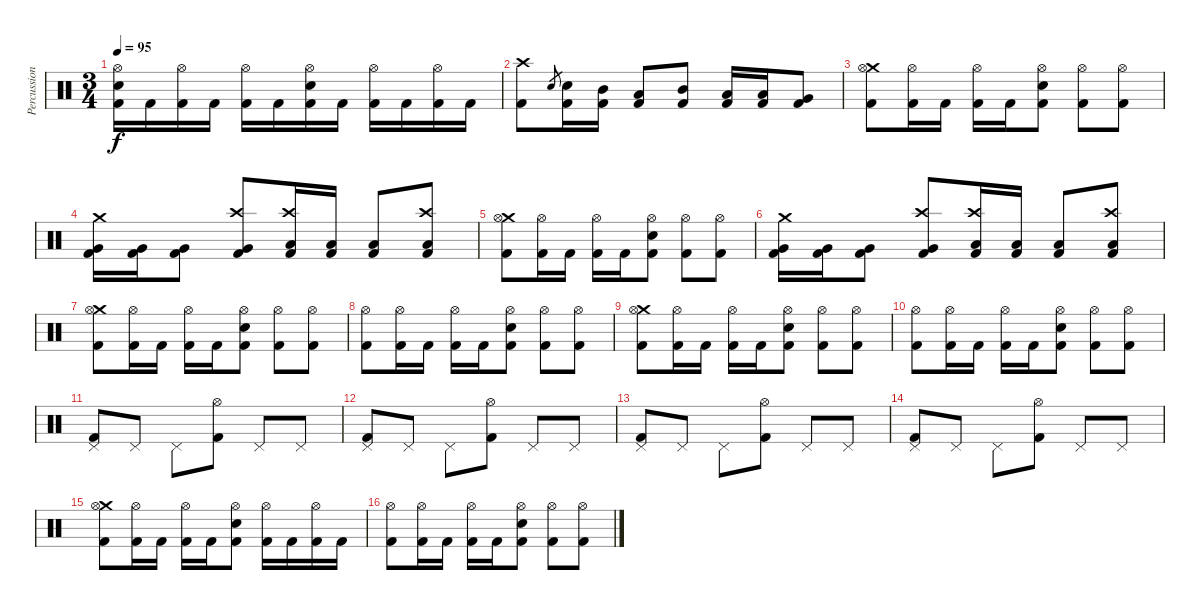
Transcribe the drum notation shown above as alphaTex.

\track ("Percussion" "Percussion") {instrument percussion}
\staff {score}
\articulation defaults
\ts (3 4)
\tempo 95
\clef neutral
\ks c
("Hi-Hat (open)" "Electric Snare (hit)" "Kick (hit) 2").16{dy f} "Kick (hit) 2".16 ("Hi-Hat (open)" "Kick (hit) 2").16 "Kick (hit) 2".16 ("Hi-Hat (open)" "Kick (hit) 2").16 "Kick (hit) 2".16 ("Hi-Hat (open)" "Electric Snare (hit)" "Kick (hit) 2").16 "Kick (hit) 2".16 ("Hi-Hat (open)" "Kick (hit) 2").16 "Kick (hit) 2".16 ("Hi-Hat (open)" "Kick (hit) 2").16 "Kick (hit) 2".16 |
("Crash high (hit)" "Kick (hit) 2").8 "Electric Snare (hit)".8{gr} ("Electric Snare (hit)" "Kick (hit) 2").16 ("Mid Tom (hit)" "Kick (hit) 2").16 ("Low Tom (hit)" "Kick (hit) 2").8 ("Mid Tom (hit)" "Kick (hit) 2").8 ("Low Tom (hit)" "Kick (hit) 2").16 ("Low Tom (hit)" "Kick (hit) 2").16 ("Very Low Tom (hit)" "Kick (hit) 2").8 |
("Crash medium (hit)" "Hi-Hat (open)" "Kick (hit) 2").8 ("Hi-Hat (open)" "Kick (hit) 2").16 "Kick (hit) 2".16 ("Hi-Hat (open)" "Kick (hit) 2").16 "Kick (hit) 2".16 ("Hi-Hat (open)" "Electric Snare (hit)" "Kick (hit) 2").8 ("Hi-Hat (open)" "Kick (hit) 2").8 ("Hi-Hat (open)" "Kick (hit) 2").8 |
("Crash medium (hit)" "Very Low Tom (hit)" "Kick (hit) 2").16 ("Very Low Tom (hit)" "Kick (hit) 2").16 ("Very Low Tom (hit)" "Kick (hit) 2").8 ("Crash high (hit)" "Very Low Tom (hit)" "Kick (hit) 2").8 ("Crash high (hit)" "Low Floor Tom (hit)" "Kick (hit) 2").16 ("Low Floor Tom (hit)" "Kick (hit) 2").16 ("Low Floor Tom (hit)" "Kick (hit) 2").8 ("Crash high (hit)" "Low Floor Tom (hit)" "Kick (hit) 2").8 |
("Crash medium (hit)" "Hi-Hat (open)" "Kick (hit) 2").8 ("Hi-Hat (open)" "Kick (hit) 2").16 "Kick (hit) 2".16 ("Hi-Hat (open)" "Kick (hit) 2").16 "Kick (hit) 2".16 ("Hi-Hat (open)" "Electric Snare (hit)" "Kick (hit) 2").8 ("Hi-Hat (open)" "Kick (hit) 2").8 ("Hi-Hat (open)" "Kick (hit) 2").8 |
("Crash medium (hit)" "Very Low Tom (hit)" "Kick (hit) 2").16 ("Very Low Tom (hit)" "Kick (hit) 2").16 ("Very Low Tom (hit)" "Kick (hit) 2").8 ("Crash high (hit)" "Very Low Tom (hit)" "Kick (hit) 2").8 ("Crash high (hit)" "Low Floor Tom (hit)" "Kick (hit) 2").16 ("Low Floor Tom (hit)" "Kick (hit) 2").16 ("Low Floor Tom (hit)" "Kick (hit) 2").8 ("Crash high (hit)" "Low Floor Tom (hit)" "Kick (hit) 2").8 |
("Crash medium (hit)" "Hi-Hat (open)" "Kick (hit) 2").8 ("Hi-Hat (open)" "Kick (hit) 2").16 "Kick (hit) 2".16 ("Hi-Hat (open)" "Kick (hit) 2").16 "Kick (hit) 2".16 ("Hi-Hat (open)" "Electric Snare (hit)" "Kick (hit) 2").8 ("Hi-Hat (open)" "Kick (hit) 2").8 ("Hi-Hat (open)" "Kick (hit) 2").8 |
("Hi-Hat (open)" "Kick (hit) 2").8 ("Hi-Hat (open)" "Kick (hit) 2").16 "Kick (hit) 2".16 ("Hi-Hat (open)" "Kick (hit) 2").16 "Kick (hit) 2".16 ("Hi-Hat (open)" "Electric Snare (hit)" "Kick (hit) 2").8 ("Hi-Hat (open)" "Kick (hit) 2").8 ("Hi-Hat (open)" "Kick (hit) 2").8 |
("Crash medium (hit)" "Hi-Hat (open)" "Kick (hit) 2").8 ("Hi-Hat (open)" "Kick (hit) 2").16 "Kick (hit) 2".16 ("Hi-Hat (open)" "Kick (hit) 2").16 "Kick (hit) 2".16 ("Hi-Hat (open)" "Electric Snare (hit)" "Kick (hit) 2").8 ("Hi-Hat (open)" "Kick (hit) 2").8 ("Hi-Hat (open)" "Kick (hit) 2").8 |
("Hi-Hat (open)" "Kick (hit) 2").8 ("Hi-Hat (open)" "Kick (hit) 2").16 "Kick (hit) 2".16 ("Hi-Hat (open)" "Kick (hit) 2").16 "Kick (hit) 2".16 ("Hi-Hat (open)" "Electric Snare (hit)" "Kick (hit) 2").8 ("Hi-Hat (open)" "Kick (hit) 2").8 ("Hi-Hat (open)" "Kick (hit) 2").8 |
("Pedal Hi-Hat (hit)" "Kick (hit) 2").8 "Pedal Hi-Hat (hit)".8 "Pedal Hi-Hat (hit)".8 ("Hi-Hat (open)" "Kick (hit) 2").8 "Pedal Hi-Hat (hit)".8 "Pedal Hi-Hat (hit)".8 |
("Pedal Hi-Hat (hit)" "Kick (hit) 2").8 "Pedal Hi-Hat (hit)".8 "Pedal Hi-Hat (hit)".8 ("Hi-Hat (open)" "Kick (hit) 2").8 "Pedal Hi-Hat (hit)".8 "Pedal Hi-Hat (hit)".8 |
("Pedal Hi-Hat (hit)" "Kick (hit) 2").8 "Pedal Hi-Hat (hit)".8 "Pedal Hi-Hat (hit)".8 ("Hi-Hat (open)" "Kick (hit) 2").8 "Pedal Hi-Hat (hit)".8 "Pedal Hi-Hat (hit)".8 |
("Pedal Hi-Hat (hit)" "Kick (hit) 2").8 "Pedal Hi-Hat (hit)".8 "Pedal Hi-Hat (hit)".8 ("Hi-Hat (open)" "Kick (hit) 2").8 "Pedal Hi-Hat (hit)".8 "Pedal Hi-Hat (hit)".8 |
("Crash medium (hit)" "Hi-Hat (open)" "Kick (hit) 2").8 ("Hi-Hat (open)" "Kick (hit) 2").16 "Kick (hit) 2".16 ("Hi-Hat (open)" "Kick (hit) 2").16 "Kick (hit) 2".16 ("Hi-Hat (open)" "Electric Snare (hit)" "Kick (hit) 2").8 ("Hi-Hat (open)" "Kick (hit) 2").16 "Kick (hit) 2".16 ("Hi-Hat (open)" "Kick (hit) 2").16 "Kick (hit) 2".16 |
("Hi-Hat (open)" "Kick (hit) 2").8 ("Hi-Hat (open)" "Kick (hit) 2").16 "Kick (hit) 2".16 ("Hi-Hat (open)" "Kick (hit) 2").16 "Kick (hit) 2".16 ("Hi-Hat (open)" "Electric Snare (hit)" "Kick (hit) 2").8 ("Hi-Hat (open)" "Kick (hit) 2").8 ("Hi-Hat (open)" "Kick (hit) 2").8
